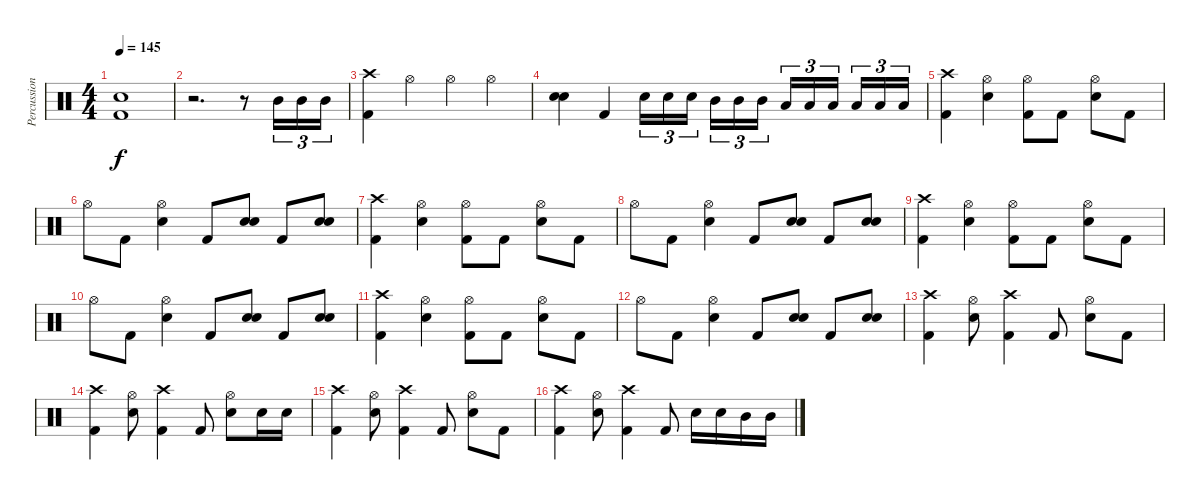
\track ("Percussion" "Percussion") {instrument percussion}
\staff {score}
\articulation defaults
\ts (4 4)
\tempo 145
\clef neutral
\ks c
("Snare (hit) 2" "Kick (hit) 2").1{dy f} |
r.2{d} r.8 "Mid Tom (hit)".16{tu (3 2)} "Mid Tom (hit)".16{tu (3 2)} "Mid Tom (hit)".16{tu (3 2)} |
("Crash high (hit)" "Kick (hit) 2").4 "Hi-Hat (open)".4 "Hi-Hat (open)".4 "Hi-Hat (open)".4 |
("Snare (hit) 2" "Snare (hit) 2").4{bd 240} "Kick (hit) 2".4 "Snare (hit) 2".16{tu (3 2)} "Snare (hit) 2".16{tu (3 2)} "Snare (hit) 2".16{tu (3 2)} "Mid Tom (hit)".16{tu (3 2)} "Mid Tom (hit)".16{tu (3 2)} "Mid Tom (hit)".16{tu (3 2)} "Low Tom (hit)".16{tu (3 2)} "Low Tom (hit)".16{tu (3 2)} "Low Tom (hit)".16{tu (3 2)} "Low Floor Tom (hit)".16{tu (3 2)} "Low Floor Tom (hit)".16{tu (3 2)} "Low Floor Tom (hit)".16{tu (3 2)} |
("Crash high (hit)" "Kick (hit) 2").4 ("Hi-Hat (open)" "Snare (hit) 2").4 ("Hi-Hat (open)" "Kick (hit) 2").8 "Kick (hit) 2".8 ("Hi-Hat (open)" "Snare (hit) 2").8 "Kick (hit) 2".8 |
"Hi-Hat (open)".8 "Kick (hit) 2".8 ("Hi-Hat (open)" "Snare (hit) 2").4 "Kick (hit) 2".8 ("Snare (hit) 2" "Snare (hit) 2").8{bd 240} "Kick (hit) 2".8 ("Snare (hit) 2" "Snare (hit) 2").8{bd 240} |
("Crash high (hit)" "Kick (hit) 2").4 ("Hi-Hat (open)" "Snare (hit) 2").4 ("Hi-Hat (open)" "Kick (hit) 2").8 "Kick (hit) 2".8 ("Hi-Hat (open)" "Snare (hit) 2").8 "Kick (hit) 2".8 |
"Hi-Hat (open)".8 "Kick (hit) 2".8 ("Hi-Hat (open)" "Snare (hit) 2").4 "Kick (hit) 2".8 ("Snare (hit) 2" "Snare (hit) 2").8{bd 240} "Kick (hit) 2".8 ("Snare (hit) 2" "Snare (hit) 2").8{bd 240} |
("Crash high (hit)" "Kick (hit) 2").4 ("Hi-Hat (open)" "Snare (hit) 2").4 ("Hi-Hat (open)" "Kick (hit) 2").8 "Kick (hit) 2".8 ("Hi-Hat (open)" "Snare (hit) 2").8 "Kick (hit) 2".8 |
"Hi-Hat (open)".8 "Kick (hit) 2".8 ("Hi-Hat (open)" "Snare (hit) 2").4 "Kick (hit) 2".8 ("Snare (hit) 2" "Snare (hit) 2").8{bd 240} "Kick (hit) 2".8 ("Snare (hit) 2" "Snare (hit) 2").8{bd 240} |
("Crash high (hit)" "Kick (hit) 2").4 ("Hi-Hat (open)" "Snare (hit) 2").4 ("Hi-Hat (open)" "Kick (hit) 2").8 "Kick (hit) 2".8 ("Hi-Hat (open)" "Snare (hit) 2").8 "Kick (hit) 2".8 |
"Hi-Hat (open)".8 "Kick (hit) 2".8 ("Hi-Hat (open)" "Snare (hit) 2").4 "Kick (hit) 2".8 ("Snare (hit) 2" "Snare (hit) 2").8{bd 240} "Kick (hit) 2".8 ("Snare (hit) 2" "Snare (hit) 2").8{bd 240} |
("Crash high (hit)" "Kick (hit) 2").4 ("Hi-Hat (open)" "Snare (hit) 2").8 ("Crash high (hit)" "Kick (hit) 2").4 "Kick (hit) 2".8 ("Hi-Hat (open)" "Snare (hit) 2").8 "Kick (hit) 2".8 |
("Crash high (hit)" "Kick (hit) 2").4 ("Hi-Hat (open)" "Snare (hit) 2").8 ("Crash high (hit)" "Kick (hit) 2").4 "Kick (hit) 2".8 ("Hi-Hat (open)" "Snare (hit) 2").8 "Snare (hit) 2".16 "Snare (hit) 2".16 |
("Crash high (hit)" "Kick (hit) 2").4 ("Hi-Hat (open)" "Snare (hit) 2").8 ("Crash high (hit)" "Kick (hit) 2").4 "Kick (hit) 2".8 ("Hi-Hat (open)" "Snare (hit) 2").8 "Kick (hit) 2".8 |
("Crash high (hit)" "Kick (hit) 2").4 ("Hi-Hat (open)" "Snare (hit) 2").8 ("Crash high (hit)" "Kick (hit) 2").4 "Kick (hit) 2".8 "Snare (hit) 2".16 "Snare (hit) 2".16 "Mid Tom (hit)".16 "Mid Tom (hit)".16
